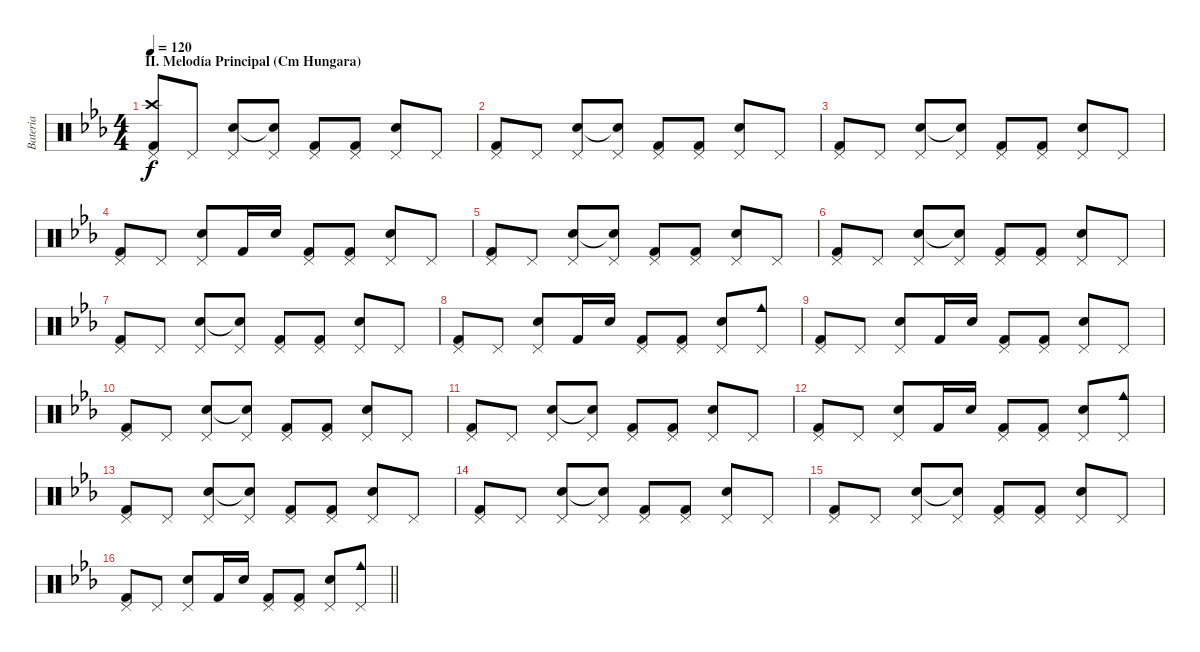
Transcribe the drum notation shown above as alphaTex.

\track ("Bateria" "Bateria") {instrument percussion}
\staff {score}
\articulation defaults
\ts (4 4)
\section ("" "II. Melodía Principal (Cm Hungara)")
\tempo 120
\clef neutral
\ks eb
("Pedal Hi-Hat (hit)" "Crash high (hit)" "Kick (hit) 2").8{dy f} "Pedal Hi-Hat (hit)".8 ("Pedal Hi-Hat (hit)" "Snare (hit) 2").8 ("Pedal Hi-Hat (hit)" "Snare (hit)"{t}).8 ("Pedal Hi-Hat (hit)" "Kick (hit) 2").8 ("Pedal Hi-Hat (hit)" "Kick (hit) 2").8 ("Pedal Hi-Hat (hit)" "Snare (hit) 2").8 "Pedal Hi-Hat (hit)".8 |
("Pedal Hi-Hat (hit)" "Kick (hit) 2").8 "Pedal Hi-Hat (hit)".8 ("Pedal Hi-Hat (hit)" "Snare (hit) 2").8 ("Pedal Hi-Hat (hit)" "Snare (hit)"{t}).8 ("Pedal Hi-Hat (hit)" "Kick (hit) 2").8 ("Pedal Hi-Hat (hit)" "Kick (hit) 2").8 ("Pedal Hi-Hat (hit)" "Snare (hit) 2").8 "Pedal Hi-Hat (hit)".8 |
("Pedal Hi-Hat (hit)" "Kick (hit) 2").8 "Pedal Hi-Hat (hit)".8 ("Pedal Hi-Hat (hit)" "Snare (hit) 2").8 ("Pedal Hi-Hat (hit)" "Snare (hit)"{t}).8 ("Pedal Hi-Hat (hit)" "Kick (hit) 2").8 ("Pedal Hi-Hat (hit)" "Kick (hit) 2").8 ("Pedal Hi-Hat (hit)" "Snare (hit) 2").8 "Pedal Hi-Hat (hit)".8 |
("Pedal Hi-Hat (hit)" "Kick (hit) 2").8 "Pedal Hi-Hat (hit)".8 ("Pedal Hi-Hat (hit)" "Snare (hit) 2").8 "Kick (hit) 2".16 "Snare (hit) 2".16 ("Pedal Hi-Hat (hit)" "Kick (hit) 2").8 ("Pedal Hi-Hat (hit)" "Kick (hit) 2").8 ("Pedal Hi-Hat (hit)" "Snare (hit) 2").8 "Pedal Hi-Hat (hit)".8 |
("Pedal Hi-Hat (hit)" "Kick (hit) 2").8 "Pedal Hi-Hat (hit)".8 ("Pedal Hi-Hat (hit)" "Snare (hit) 2").8 ("Pedal Hi-Hat (hit)" "Snare (hit)"{t}).8 ("Pedal Hi-Hat (hit)" "Kick (hit) 2").8 ("Pedal Hi-Hat (hit)" "Kick (hit) 2").8 ("Pedal Hi-Hat (hit)" "Snare (hit) 2").8 "Pedal Hi-Hat (hit)".8 |
("Pedal Hi-Hat (hit)" "Kick (hit) 2").8 "Pedal Hi-Hat (hit)".8 ("Pedal Hi-Hat (hit)" "Snare (hit) 2").8 ("Pedal Hi-Hat (hit)" "Snare (hit)"{t}).8 ("Pedal Hi-Hat (hit)" "Kick (hit) 2").8 ("Pedal Hi-Hat (hit)" "Kick (hit) 2").8 ("Pedal Hi-Hat (hit)" "Snare (hit) 2").8 "Pedal Hi-Hat (hit)".8 |
("Pedal Hi-Hat (hit)" "Kick (hit) 2").8 "Pedal Hi-Hat (hit)".8 ("Pedal Hi-Hat (hit)" "Snare (hit) 2").8 ("Pedal Hi-Hat (hit)" "Snare (hit)"{t}).8 ("Pedal Hi-Hat (hit)" "Kick (hit) 2").8 ("Pedal Hi-Hat (hit)" "Kick (hit) 2").8 ("Pedal Hi-Hat (hit)" "Snare (hit) 2").8 "Pedal Hi-Hat (hit)".8 |
("Pedal Hi-Hat (hit)" "Kick (hit) 2").8 "Pedal Hi-Hat (hit)".8 ("Pedal Hi-Hat (hit)" "Snare (hit) 2").8 "Kick (hit) 2".16 "Snare (hit) 2".16 ("Pedal Hi-Hat (hit)" "Kick (hit) 2").8 ("Pedal Hi-Hat (hit)" "Kick (hit) 2").8 ("Pedal Hi-Hat (hit)" "Snare (hit) 2").8 ("Pedal Hi-Hat (hit)" "Cowbell medium (hit)").8 |
("Pedal Hi-Hat (hit)" "Kick (hit) 2").8 "Pedal Hi-Hat (hit)".8 ("Pedal Hi-Hat (hit)" "Snare (hit) 2").8 "Kick (hit) 2".16 "Snare (hit) 2".16 ("Pedal Hi-Hat (hit)" "Kick (hit) 2").8 ("Pedal Hi-Hat (hit)" "Kick (hit) 2").8 ("Pedal Hi-Hat (hit)" "Snare (hit) 2").8 "Pedal Hi-Hat (hit)".8 |
("Pedal Hi-Hat (hit)" "Kick (hit) 2").8 "Pedal Hi-Hat (hit)".8 ("Pedal Hi-Hat (hit)" "Snare (hit) 2").8 ("Pedal Hi-Hat (hit)" "Snare (hit)"{t}).8 ("Pedal Hi-Hat (hit)" "Kick (hit) 2").8 ("Pedal Hi-Hat (hit)" "Kick (hit) 2").8 ("Pedal Hi-Hat (hit)" "Snare (hit) 2").8 "Pedal Hi-Hat (hit)".8 |
("Pedal Hi-Hat (hit)" "Kick (hit) 2").8 "Pedal Hi-Hat (hit)".8 ("Pedal Hi-Hat (hit)" "Snare (hit) 2").8 ("Pedal Hi-Hat (hit)" "Snare (hit)"{t}).8 ("Pedal Hi-Hat (hit)" "Kick (hit) 2").8 ("Pedal Hi-Hat (hit)" "Kick (hit) 2").8 ("Pedal Hi-Hat (hit)" "Snare (hit) 2").8 "Pedal Hi-Hat (hit)".8 |
("Pedal Hi-Hat (hit)" "Kick (hit) 2").8 "Pedal Hi-Hat (hit)".8 ("Pedal Hi-Hat (hit)" "Snare (hit) 2").8 "Kick (hit) 2".16 "Snare (hit) 2".16 ("Pedal Hi-Hat (hit)" "Kick (hit) 2").8 ("Pedal Hi-Hat (hit)" "Kick (hit) 2").8 ("Pedal Hi-Hat (hit)" "Snare (hit) 2").8 ("Pedal Hi-Hat (hit)" "Cowbell medium (hit)").8 |
("Pedal Hi-Hat (hit)" "Kick (hit) 2").8 "Pedal Hi-Hat (hit)".8 ("Pedal Hi-Hat (hit)" "Snare (hit) 2").8 ("Pedal Hi-Hat (hit)" "Snare (hit)"{t}).8 ("Pedal Hi-Hat (hit)" "Kick (hit) 2").8 ("Pedal Hi-Hat (hit)" "Kick (hit) 2").8 ("Pedal Hi-Hat (hit)" "Snare (hit) 2").8 "Pedal Hi-Hat (hit)".8 |
("Pedal Hi-Hat (hit)" "Kick (hit) 2").8 "Pedal Hi-Hat (hit)".8 ("Pedal Hi-Hat (hit)" "Snare (hit) 2").8 ("Pedal Hi-Hat (hit)" "Snare (hit)"{t}).8 ("Pedal Hi-Hat (hit)" "Kick (hit) 2").8 ("Pedal Hi-Hat (hit)" "Kick (hit) 2").8 ("Pedal Hi-Hat (hit)" "Snare (hit) 2").8 "Pedal Hi-Hat (hit)".8 |
("Pedal Hi-Hat (hit)" "Kick (hit) 2").8 "Pedal Hi-Hat (hit)".8 ("Pedal Hi-Hat (hit)" "Snare (hit) 2").8 ("Pedal Hi-Hat (hit)" "Snare (hit)"{t}).8 ("Pedal Hi-Hat (hit)" "Kick (hit) 2").8 ("Pedal Hi-Hat (hit)" "Kick (hit) 2").8 ("Pedal Hi-Hat (hit)" "Snare (hit) 2").8 "Pedal Hi-Hat (hit)".8 |
\barLineRight lightlight
("Pedal Hi-Hat (hit)" "Kick (hit) 2").8 "Pedal Hi-Hat (hit)".8 ("Pedal Hi-Hat (hit)" "Snare (hit) 2").8 "Kick (hit) 2".16 "Snare (hit) 2".16 ("Pedal Hi-Hat (hit)" "Kick (hit) 2").8 ("Pedal Hi-Hat (hit)" "Kick (hit) 2").8 ("Pedal Hi-Hat (hit)" "Snare (hit) 2").8 ("Pedal Hi-Hat (hit)" "Cowbell medium (hit)").8
